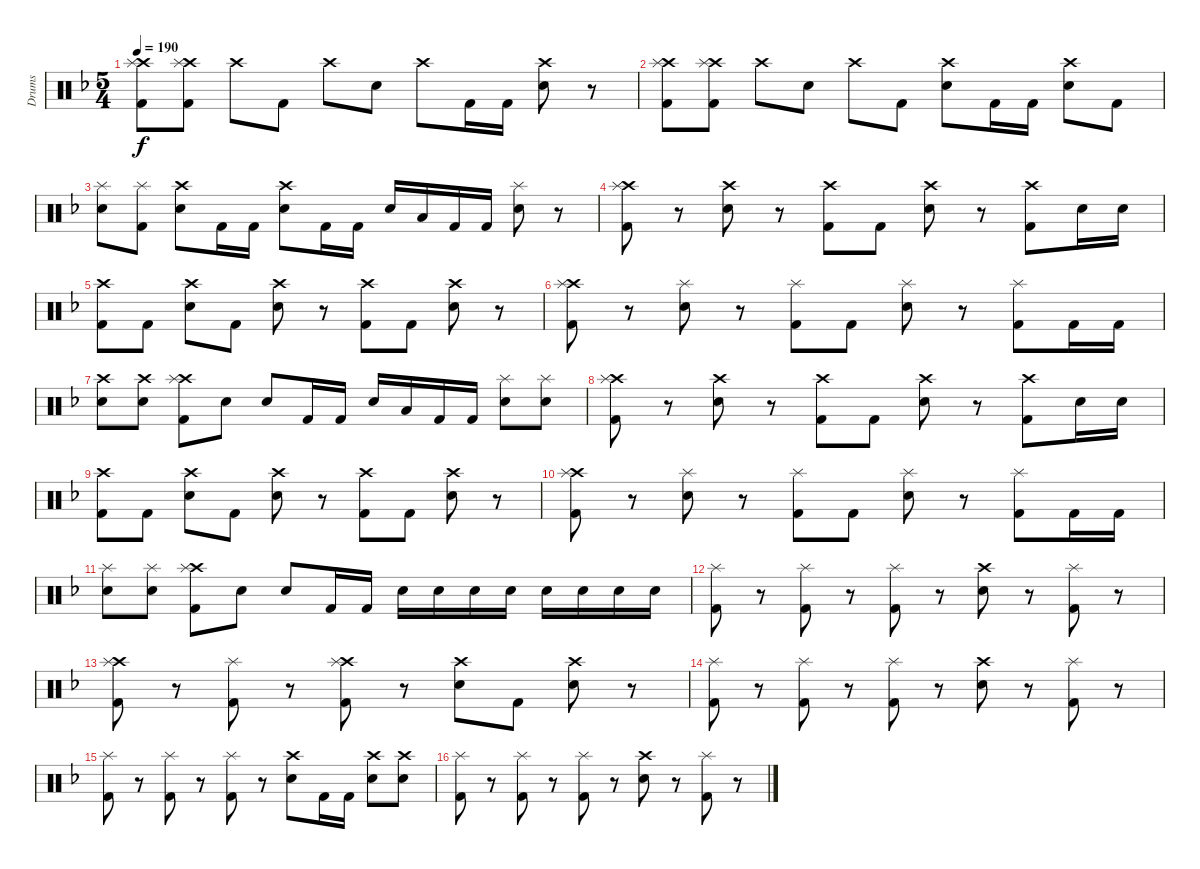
\track ("Drums" "Drums") {instrument percussion}
\staff {score}
\articulation defaults
\ts (5 4)
\tempo 190
\clef neutral
\ks dminor
("Kick (hit) 2" "Crash high (hit)" "Splash (hit)").8{dy f} ("Kick (hit) 2" "Crash high (hit)" "Splash (hit)").8 "Crash high (hit)".8 "Kick (hit) 2".8 "Crash high (hit)".8 "Electric Snare (hit)".8 "Crash high (hit)".8 "Kick (hit) 2".16 "Kick (hit) 2".16 ("Electric Snare (hit)" "Crash high (hit)").8 r.8 |
("Kick (hit) 2" "Crash high (hit)" "Splash (hit)").8 ("Kick (hit) 2" "Crash high (hit)" "Splash (hit)").8 "Crash high (hit)".8 "Electric Snare (hit)".8 "Crash high (hit)".8 "Kick (hit) 2".8 ("Electric Snare (hit)" "Crash high (hit)").8 "Kick (hit) 2".16 "Kick (hit) 2".16 ("Electric Snare (hit)" "Crash high (hit)").8 "Kick (hit) 2".8 |
("Electric Snare (hit)" "Splash (hit)").8 ("Kick (hit) 2" "Splash (hit)").8 ("Electric Snare (hit)" "Crash high (hit)").8 "Kick (hit) 2".16 "Kick (hit) 2".16 ("Electric Snare (hit)" "Crash high (hit)").8 "Kick (hit) 2".16 "Kick (hit) 2".16 "Electric Snare (hit)".16 "Low Tom (hit)".16 "Kick (hit) 2".16 "Kick (hit) 2".16 ("Electric Snare (hit)" "Splash (hit)").8 r.8 |
("Kick (hit) 2" "Crash high (hit)" "Splash (hit)").8 r.8 ("Electric Snare (hit)" "Crash high (hit)").8 r.8 ("Kick (hit) 2" "Crash high (hit)").8 "Kick (hit) 2".8 ("Electric Snare (hit)" "Crash high (hit)").8 r.8 ("Kick (hit) 2" "Crash high (hit)").8 "Electric Snare (hit)".16 "Electric Snare (hit)".16 |
("Kick (hit) 2" "Crash high (hit)").8 "Kick (hit) 2".8 ("Electric Snare (hit)" "Crash high (hit)").8 "Kick (hit) 2".8 ("Electric Snare (hit)" "Crash high (hit)").8 r.8 ("Kick (hit) 2" "Crash high (hit)").8 "Kick (hit) 2".8 ("Electric Snare (hit)" "Crash high (hit)").8 r.8 |
("Kick (hit) 2" "Crash high (hit)" "Splash (hit)").8 r.8 ("Electric Snare (hit)" "Splash (hit)").8 r.8 ("Kick (hit) 2" "Splash (hit)").8 "Kick (hit) 2".8 ("Electric Snare (hit)" "Splash (hit)").8 r.8 ("Kick (hit) 2" "Splash (hit)").8 "Kick (hit) 2".16 "Kick (hit) 2".16 |
("Electric Snare (hit)" "Crash high (hit)").8 ("Electric Snare (hit)" "Crash high (hit)").8 ("Kick (hit) 2" "Crash high (hit)" "Splash (hit)").8 "Electric Snare (hit)".8 "Electric Snare (hit)".8 "Kick (hit) 2".16 "Kick (hit) 2".16 "Electric Snare (hit)".16 "Low Tom (hit)".16 "Kick (hit) 2".16 "Kick (hit) 2".16 ("Electric Snare (hit)" "Splash (hit)").8 ("Electric Snare (hit)" "Splash (hit)").8 |
("Kick (hit) 2" "Crash high (hit)" "Splash (hit)").8 r.8 ("Electric Snare (hit)" "Crash high (hit)").8 r.8 ("Kick (hit) 2" "Crash high (hit)").8 "Kick (hit) 2".8 ("Electric Snare (hit)" "Crash high (hit)").8 r.8 ("Kick (hit) 2" "Crash high (hit)").8 "Electric Snare (hit)".16 "Electric Snare (hit)".16 |
("Kick (hit) 2" "Crash high (hit)").8 "Kick (hit) 2".8 ("Electric Snare (hit)" "Crash high (hit)").8 "Kick (hit) 2".8 ("Electric Snare (hit)" "Crash high (hit)").8 r.8 ("Kick (hit) 2" "Crash high (hit)").8 "Kick (hit) 2".8 ("Electric Snare (hit)" "Crash high (hit)").8 r.8 |
("Kick (hit) 2" "Crash high (hit)" "Splash (hit)").8 r.8 ("Electric Snare (hit)" "Splash (hit)").8 r.8 ("Kick (hit) 2" "Splash (hit)").8 "Kick (hit) 2".8 ("Electric Snare (hit)" "Splash (hit)").8 r.8 ("Kick (hit) 2" "Splash (hit)").8 "Kick (hit) 2".16 "Kick (hit) 2".16 |
("Electric Snare (hit)" "Splash (hit)").8 ("Electric Snare (hit)" "Splash (hit)").8 ("Kick (hit) 2" "Crash high (hit)" "Splash (hit)").8 "Electric Snare (hit)".8 "Electric Snare (hit)".8 "Kick (hit) 2".16 "Kick (hit) 2".16 "Electric Snare (hit)".16 "Electric Snare (hit)".16 "Electric Snare (hit)".16 "Electric Snare (hit)".16 "Electric Snare (hit)".16 "Electric Snare (hit)".16 "Electric Snare (hit)".16 "Electric Snare (hit)".16 |
("Kick (hit) 2" "Splash (hit)").8 r.8 ("Kick (hit) 2" "Splash (hit)").8 r.8 ("Kick (hit) 2" "Splash (hit)").8 r.8 ("Electric Snare (hit)" "Crash high (hit)").8 r.8 ("Kick (hit) 2" "Splash (hit)").8 r.8 |
("Kick (hit) 2" "Crash high (hit)" "Splash (hit)").8 r.8 ("Kick (hit) 2" "Splash (hit)").8 r.8 ("Kick (hit) 2" "Crash high (hit)" "Splash (hit)").8 r.8 ("Electric Snare (hit)" "Crash high (hit)").8 "Kick (hit) 2".8 ("Electric Snare (hit)" "Crash high (hit)").8 r.8 |
("Kick (hit) 2" "Splash (hit)").8 r.8 ("Kick (hit) 2" "Splash (hit)").8 r.8 ("Kick (hit) 2" "Splash (hit)").8 r.8 ("Electric Snare (hit)" "Crash high (hit)").8 r.8 ("Kick (hit) 2" "Splash (hit)").8 r.8 |
("Kick (hit) 2" "Splash (hit)").8 r.8 ("Kick (hit) 2" "Splash (hit)").8 r.8 ("Kick (hit) 2" "Splash (hit)").8 r.8 ("Electric Snare (hit)" "Crash high (hit)").8 "Kick (hit) 2".16 "Kick (hit) 2".16 ("Electric Snare (hit)" "Crash high (hit)").8 ("Electric Snare (hit)" "Crash high (hit)").8 |
("Kick (hit) 2" "Splash (hit)").8 r.8 ("Kick (hit) 2" "Splash (hit)").8 r.8 ("Kick (hit) 2" "Splash (hit)").8 r.8 ("Electric Snare (hit)" "Crash high (hit)").8 r.8 ("Kick (hit) 2" "Splash (hit)").8 r.8
